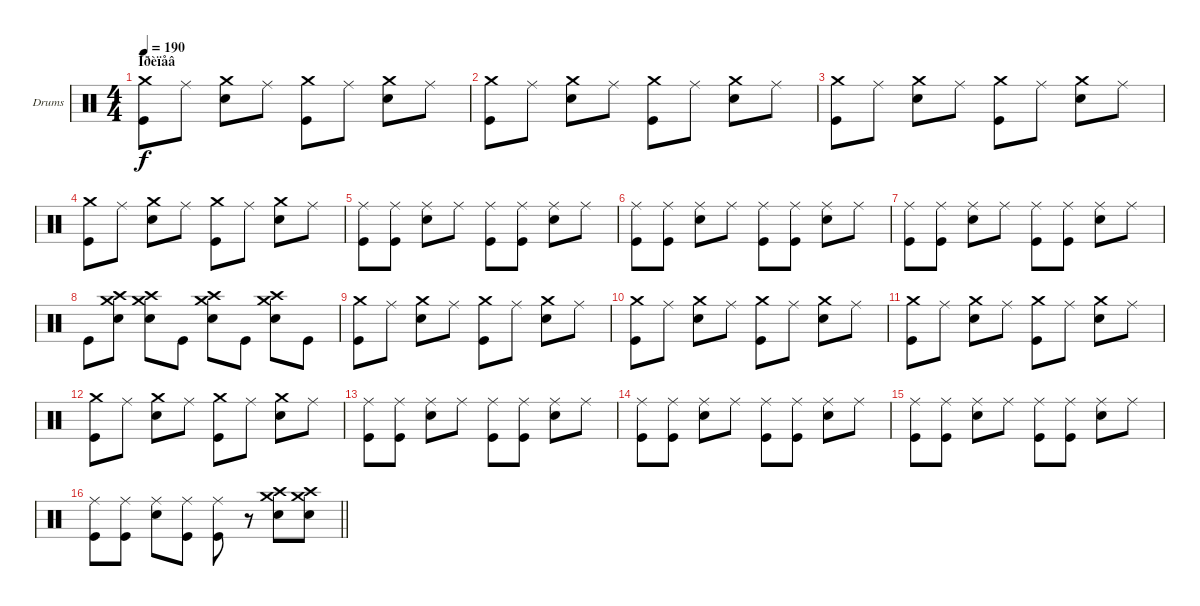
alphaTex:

\bracketExtendMode groupsimilarinstruments
\firstSystemTrackNameOrientation horizontal
\otherSystemsTrackNameOrientation horizontal
\track ("Drumkit" "Drums") {instrument percussion}
\staff {score}
\articulation defaults
\ts (4 4)
\section ("" "Ïðèïåâ")
\tempo 190
\clef neutral
\ks c
("Kick (hit)" "Crash medium (hit)").8{dy f} "Ride (middle)".8 ("Snare (hit) 2" "Crash medium (hit)").8 "Ride (middle)".8 ("Kick (hit)" "Crash medium (hit)").8 "Ride (middle)".8 ("Snare (hit) 2" "Crash medium (hit)").8 "Ride (middle)".8 |
("Kick (hit)" "Crash medium (hit)").8 "Ride (middle)".8 ("Snare (hit) 2" "Crash medium (hit)").8 "Ride (middle)".8 ("Kick (hit)" "Crash medium (hit)").8 "Ride (middle)".8 ("Snare (hit) 2" "Crash medium (hit)").8 "Ride (middle)".8 |
("Kick (hit)" "Crash medium (hit)").8 "Ride (middle)".8 ("Snare (hit) 2" "Crash medium (hit)").8 "Ride (middle)".8 ("Kick (hit)" "Crash medium (hit)").8 "Ride (middle)".8 ("Snare (hit) 2" "Crash medium (hit)").8 "Ride (middle)".8 |
("Kick (hit)" "Crash medium (hit)").8 "Ride (middle)".8 ("Snare (hit) 2" "Crash medium (hit)").8 "Ride (middle)".8 ("Kick (hit)" "Crash medium (hit)").8 "Ride (middle)".8 ("Snare (hit) 2" "Crash medium (hit)").8 "Ride (middle)".8 |
("Kick (hit)" "Ride (middle)").8 ("Ride (middle)" "Kick (hit)").8 ("Snare (hit) 2" "Ride (middle)").8 "Ride (middle)".8 ("Kick (hit)" "Ride (middle)").8 ("Ride (middle)" "Kick (hit)").8 ("Snare (hit) 2" "Ride (middle)").8 "Ride (middle)".8 |
("Kick (hit)" "Ride (middle)").8 ("Ride (middle)" "Kick (hit)").8 ("Snare (hit) 2" "Ride (middle)").8 "Ride (middle)".8 ("Kick (hit)" "Ride (middle)").8 ("Ride (middle)" "Kick (hit)").8 ("Snare (hit) 2" "Ride (middle)").8 "Ride (middle)".8 |
("Kick (hit)" "Ride (middle)").8 ("Ride (middle)" "Kick (hit)").8 ("Snare (hit) 2" "Ride (middle)").8 "Ride (middle)".8 ("Kick (hit)" "Ride (middle)").8 ("Ride (middle)" "Kick (hit)").8 ("Snare (hit) 2" "Ride (middle)").8 "Ride (middle)".8 |
"Kick (hit)".8 ("Crash high (hit)" "Crash medium (hit)" "Snare (hit) 2").8 ("Crash high (hit)" "Crash medium (hit)" "Snare (hit) 2").8 "Kick (hit)".8 ("Crash high (hit)" "Crash medium (hit)" "Snare (hit) 2").8 "Kick (hit)".8 ("Crash high (hit)" "Crash medium (hit)" "Snare (hit) 2").8 "Kick (hit)".8 |
("Kick (hit)" "Crash medium (hit)").8 "Ride (middle)".8 ("Snare (hit) 2" "Crash medium (hit)").8 "Ride (middle)".8 ("Kick (hit)" "Crash medium (hit)").8 "Ride (middle)".8 ("Snare (hit) 2" "Crash medium (hit)").8 "Ride (middle)".8 |
("Kick (hit)" "Crash medium (hit)").8 "Ride (middle)".8 ("Snare (hit) 2" "Crash medium (hit)").8 "Ride (middle)".8 ("Kick (hit)" "Crash medium (hit)").8 "Ride (middle)".8 ("Snare (hit) 2" "Crash medium (hit)").8 "Ride (middle)".8 |
("Kick (hit)" "Crash medium (hit)").8 "Ride (middle)".8 ("Snare (hit) 2" "Crash medium (hit)").8 "Ride (middle)".8 ("Kick (hit)" "Crash medium (hit)").8 "Ride (middle)".8 ("Snare (hit) 2" "Crash medium (hit)").8 "Ride (middle)".8 |
("Kick (hit)" "Crash medium (hit)").8 "Ride (middle)".8 ("Snare (hit) 2" "Crash medium (hit)").8 "Ride (middle)".8 ("Kick (hit)" "Crash medium (hit)").8 "Ride (middle)".8 ("Snare (hit) 2" "Crash medium (hit)").8 "Ride (middle)".8 |
("Kick (hit)" "Ride (middle)").8 ("Ride (middle)" "Kick (hit)").8 ("Snare (hit) 2" "Ride (middle)").8 "Ride (middle)".8 ("Kick (hit)" "Ride (middle)").8 ("Ride (middle)" "Kick (hit)").8 ("Snare (hit) 2" "Ride (middle)").8 "Ride (middle)".8 |
("Kick (hit)" "Ride (middle)").8 ("Ride (middle)" "Kick (hit)").8 ("Snare (hit) 2" "Ride (middle)").8 "Ride (middle)".8 ("Kick (hit)" "Ride (middle)").8 ("Ride (middle)" "Kick (hit)").8 ("Snare (hit) 2" "Ride (middle)").8 "Ride (middle)".8 |
("Kick (hit)" "Ride (middle)").8 ("Ride (middle)" "Kick (hit)").8 ("Snare (hit) 2" "Ride (middle)").8 "Ride (middle)".8 ("Kick (hit)" "Ride (middle)").8 ("Ride (middle)" "Kick (hit)").8 ("Snare (hit) 2" "Ride (middle)").8 "Ride (middle)".8 |
\barLineRight lightlight
("Kick (hit)" "Ride (middle)").8 ("Ride (middle)" "Kick (hit)").8 ("Snare (hit) 2" "Ride (middle)").8 ("Ride (middle)" "Kick (hit)").8 ("Kick (hit)" "Ride (middle)").8 r.8 ("Crash medium (hit)" "Crash high (hit)" "Snare (hit) 2").8 ("Crash high (hit)" "Crash medium (hit)" "Snare (hit) 2").8
